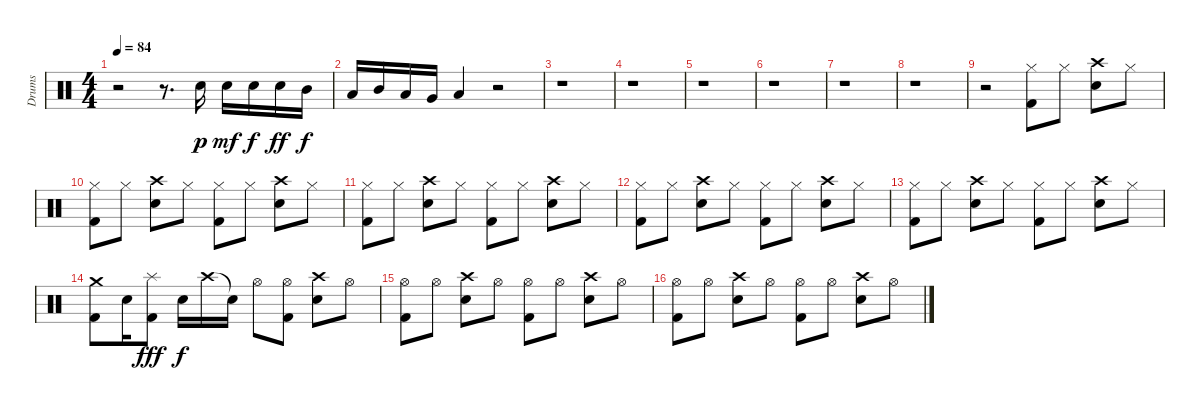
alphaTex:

\track ("Drums" "Drums") {instrument percussion}
\staff {score}
\articulation defaults
\ts (4 4)
\tempo 84
\clef neutral
\ks c
r.2{dy p} r.8{d} "Snare (hit) 2".16 "Snare (hit) 2".16{dy mf} "Snare (hit) 2".16{dy f} "Snare (hit) 2".16{dy ff} "Mid Tom (hit)".16{dy f} |
"Low Tom (hit)".16 "Mid Tom (hit)".16 "Low Tom (hit)".16 "Very Low Tom (hit)".16 "Low Floor Tom (hit)".4 r.2 |
r.1 |
r.1 |
r.1 |
r.1 |
r.1 |
r.1 |
r.2 ("Hi-Hat (closed)" "Kick (hit) 2").8 "Hi-Hat (closed)".8 ("Crash high (hit)" "Snare (hit) 2").8 "Hi-Hat (closed)".8 |
("Hi-Hat (closed)" "Kick (hit) 2").8 "Hi-Hat (closed)".8 ("Crash high (hit)" "Snare (hit) 2").8 "Hi-Hat (closed)".8 ("Hi-Hat (closed)" "Kick (hit) 2").8 "Hi-Hat (closed)".8 ("Crash high (hit)" "Snare (hit) 2").8 "Hi-Hat (closed)".8 |
("Hi-Hat (closed)" "Kick (hit) 2").8 "Hi-Hat (closed)".8 ("Crash high (hit)" "Snare (hit) 2").8 "Hi-Hat (closed)".8 ("Hi-Hat (closed)" "Kick (hit) 2").8 "Hi-Hat (closed)".8 ("Crash high (hit)" "Snare (hit) 2").8 "Hi-Hat (closed)".8 |
("Hi-Hat (closed)" "Kick (hit) 2").8 "Hi-Hat (closed)".8 ("Crash high (hit)" "Snare (hit) 2").8 "Hi-Hat (closed)".8 ("Hi-Hat (closed)" "Kick (hit) 2").8 "Hi-Hat (closed)".8 ("Crash high (hit)" "Snare (hit) 2").8 "Hi-Hat (closed)".8 |
("Hi-Hat (closed)" "Kick (hit) 2").8 "Hi-Hat (closed)".8 ("Crash high (hit)" "Snare (hit) 2").8 "Hi-Hat (closed)".8 ("Hi-Hat (closed)" "Kick (hit) 2").8 "Hi-Hat (closed)".8 ("Crash high (hit)" "Snare (hit) 2").8 "Hi-Hat (closed)".8 |
("Crash medium (hit)" "Kick (hit) 2").8 "Snare (hit) 2".16 ("Splash (hit)" "Kick (hit) 2").8{dy fff} "Snare (hit) 2".16{dy f} "Crash high (hit)".16 "Snare (hit)"{t}.16 "Hi-Hat (open)".8 ("Hi-Hat (open)" "Kick (hit) 2").8 ("Crash high (hit)" "Snare (hit) 2").8 "Hi-Hat (open)".8 |
("Hi-Hat (open)" "Kick (hit) 2").8 "Hi-Hat (open)".8 ("Crash high (hit)" "Snare (hit) 2").8 "Hi-Hat (open)".8 ("Hi-Hat (open)" "Kick (hit) 2").8 "Hi-Hat (open)".8 ("Crash high (hit)" "Snare (hit) 2").8 "Hi-Hat (open)".8 |
("Hi-Hat (open)" "Kick (hit) 2").8 "Hi-Hat (open)".8 ("Crash high (hit)" "Snare (hit) 2").8 "Hi-Hat (open)".8 ("Hi-Hat (open)" "Kick (hit) 2").8 "Hi-Hat (open)".8 ("Crash high (hit)" "Snare (hit) 2").8 "Hi-Hat (open)".8
